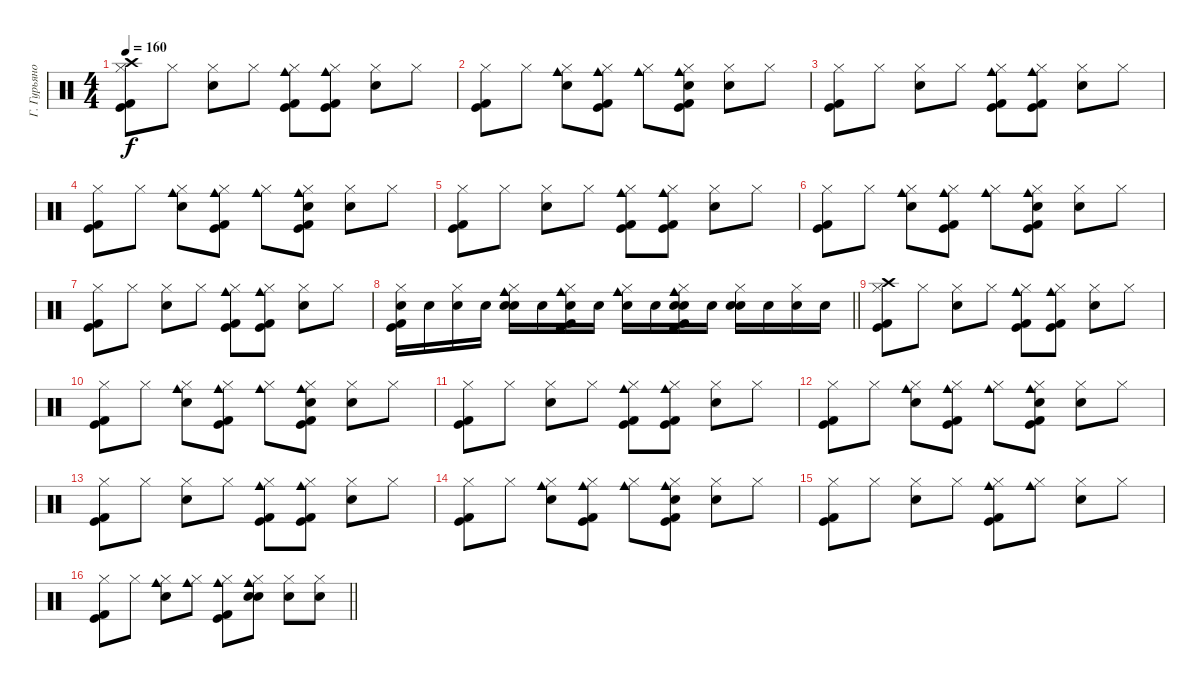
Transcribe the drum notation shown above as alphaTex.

\track ("Г. Гурьянов" "Г. Гурьяно") {instrument percussion}
\staff
\articulation defaults
\ts (4 4)
\tempo 160
\clef neutral
\ks c
("Hi-Hat (closed)" "Crash high (hit)" "Kick (hit)" "Kick (hit) 2").8{dy f} "Hi-Hat (closed)".8 ("Hi-Hat (closed)" "Snare (hit) 2").8 "Hi-Hat (closed)".8 ("Hi-Hat (closed)" "Cowbell medium (hit)" "Kick (hit)" "Kick (hit) 2").8 ("Hi-Hat (closed)" "Cowbell medium (hit)" "Kick (hit)" "Kick (hit) 2").8 ("Hi-Hat (closed)" "Snare (hit) 2").8 "Hi-Hat (closed)".8 |
("Hi-Hat (closed)" "Kick (hit)" "Kick (hit) 2").8 "Hi-Hat (closed)".8 ("Hi-Hat (closed)" "Cowbell medium (hit)" "Snare (hit) 2").8 ("Hi-Hat (closed)" "Cowbell medium (hit)" "Kick (hit)" "Kick (hit) 2").8 ("Hi-Hat (closed)" "Cowbell medium (hit)").8 ("Hi-Hat (closed)" "Cowbell medium (hit)" "Hand Clap (hit)" "Kick (hit)" "Kick (hit) 2").8 ("Hi-Hat (closed)" "Snare (hit) 2").8 "Hi-Hat (closed)".8 |
("Hi-Hat (closed)" "Kick (hit)" "Kick (hit) 2").8 "Hi-Hat (closed)".8 ("Hi-Hat (closed)" "Snare (hit) 2").8 "Hi-Hat (closed)".8 ("Hi-Hat (closed)" "Cowbell medium (hit)" "Kick (hit)" "Kick (hit) 2").8 ("Hi-Hat (closed)" "Cowbell medium (hit)" "Kick (hit)" "Kick (hit) 2").8 ("Hi-Hat (closed)" "Snare (hit) 2").8 "Hi-Hat (closed)".8 |
("Hi-Hat (closed)" "Kick (hit)" "Kick (hit) 2").8 "Hi-Hat (closed)".8 ("Hi-Hat (closed)" "Cowbell medium (hit)" "Snare (hit) 2").8 ("Hi-Hat (closed)" "Cowbell medium (hit)" "Kick (hit)" "Kick (hit) 2").8 ("Hi-Hat (closed)" "Cowbell medium (hit)").8 ("Hi-Hat (closed)" "Cowbell medium (hit)" "Hand Clap (hit)" "Kick (hit)" "Kick (hit) 2").8 ("Hi-Hat (closed)" "Snare (hit) 2").8 "Hi-Hat (closed)".8 |
("Hi-Hat (closed)" "Kick (hit)" "Kick (hit) 2").8 "Hi-Hat (closed)".8 ("Hi-Hat (closed)" "Snare (hit) 2").8 "Hi-Hat (closed)".8 ("Hi-Hat (closed)" "Cowbell medium (hit)" "Kick (hit)" "Kick (hit) 2").8 ("Hi-Hat (closed)" "Cowbell medium (hit)" "Kick (hit)" "Kick (hit) 2").8 ("Hi-Hat (closed)" "Snare (hit) 2").8 "Hi-Hat (closed)".8 |
("Hi-Hat (closed)" "Kick (hit)" "Kick (hit) 2").8 "Hi-Hat (closed)".8 ("Hi-Hat (closed)" "Cowbell medium (hit)" "Snare (hit) 2").8 ("Hi-Hat (closed)" "Cowbell medium (hit)" "Kick (hit)" "Kick (hit) 2").8 ("Hi-Hat (closed)" "Cowbell medium (hit)").8 ("Hi-Hat (closed)" "Cowbell medium (hit)" "Hand Clap (hit)" "Kick (hit)" "Kick (hit) 2").8 ("Hi-Hat (closed)" "Snare (hit) 2").8 "Hi-Hat (closed)".8 |
("Hi-Hat (closed)" "Kick (hit)" "Kick (hit) 2").8 "Hi-Hat (closed)".8 ("Hi-Hat (closed)" "Snare (hit) 2").8 "Hi-Hat (closed)".8 ("Hi-Hat (closed)" "Cowbell medium (hit)" "Kick (hit)" "Kick (hit) 2").8 ("Hi-Hat (closed)" "Cowbell medium (hit)" "Kick (hit)" "Kick (hit) 2").8 ("Hi-Hat (closed)" "Snare (hit) 2").8 "Hi-Hat (closed)".8 |
\barLineRight lightlight
("Hi-Hat (closed)" "Electric Snare (hit)" "Kick (hit)" "Kick (hit) 2").16 "Electric Snare (hit)".16 ("Hi-Hat (closed)" "Electric Snare (hit)").16 "Electric Snare (hit)".16 ("Hi-Hat (closed)" "Electric Snare (hit)" "Snare (hit) 2" "Cowbell medium (hit)").16 "Electric Snare (hit)".16 ("Hi-Hat (closed)" "Electric Snare (hit)" "Cowbell medium (hit)" "Kick (hit)" "Kick (hit) 2").16 "Electric Snare (hit)".16 ("Hi-Hat (closed)" "Electric Snare (hit)" "Cowbell medium (hit)").16 "Electric Snare (hit)".16 ("Hi-Hat (closed)" "Electric Snare (hit)" "Kick (hit)" "Cowbell medium (hit)" "Hand Clap (hit)" "Kick (hit) 2").16 "Electric Snare (hit)".16 ("Hi-Hat (closed)" "Electric Snare (hit)" "Snare (hit) 2").16 "Electric Snare (hit)".16 ("Hi-Hat (closed)" "Electric Snare (hit)").16 "Electric Snare (hit)".16 |
("Hi-Hat (closed)" "Crash high (hit)" "Kick (hit)" "Kick (hit) 2").8 "Hi-Hat (closed)".8 ("Hi-Hat (closed)" "Snare (hit) 2").8 "Hi-Hat (closed)".8 ("Hi-Hat (closed)" "Cowbell medium (hit)" "Kick (hit)" "Kick (hit) 2").8 ("Hi-Hat (closed)" "Cowbell medium (hit)" "Kick (hit)" "Kick (hit) 2").8 ("Hi-Hat (closed)" "Snare (hit) 2").8 "Hi-Hat (closed)".8 |
("Hi-Hat (closed)" "Kick (hit)" "Kick (hit) 2").8 "Hi-Hat (closed)".8 ("Hi-Hat (closed)" "Cowbell medium (hit)" "Snare (hit) 2").8 ("Hi-Hat (closed)" "Cowbell medium (hit)" "Kick (hit)" "Kick (hit) 2").8 ("Hi-Hat (closed)" "Cowbell medium (hit)").8 ("Hi-Hat (closed)" "Cowbell medium (hit)" "Hand Clap (hit)" "Kick (hit)" "Kick (hit) 2").8 ("Hi-Hat (closed)" "Snare (hit) 2").8 "Hi-Hat (closed)".8 |
("Hi-Hat (closed)" "Kick (hit)" "Kick (hit) 2").8 "Hi-Hat (closed)".8 ("Hi-Hat (closed)" "Snare (hit) 2").8 "Hi-Hat (closed)".8 ("Hi-Hat (closed)" "Cowbell medium (hit)" "Kick (hit)" "Kick (hit) 2").8 ("Hi-Hat (closed)" "Cowbell medium (hit)" "Kick (hit)" "Kick (hit) 2").8 ("Hi-Hat (closed)" "Snare (hit) 2").8 "Hi-Hat (closed)".8 |
("Hi-Hat (closed)" "Kick (hit)" "Kick (hit) 2").8 "Hi-Hat (closed)".8 ("Hi-Hat (closed)" "Cowbell medium (hit)" "Snare (hit) 2").8 ("Hi-Hat (closed)" "Cowbell medium (hit)" "Kick (hit)" "Kick (hit) 2").8 ("Hi-Hat (closed)" "Cowbell medium (hit)").8 ("Hi-Hat (closed)" "Cowbell medium (hit)" "Hand Clap (hit)" "Kick (hit)" "Kick (hit) 2").8 ("Hi-Hat (closed)" "Snare (hit) 2").8 "Hi-Hat (closed)".8 |
("Hi-Hat (closed)" "Kick (hit)" "Kick (hit) 2").8 "Hi-Hat (closed)".8 ("Hi-Hat (closed)" "Snare (hit) 2").8 "Hi-Hat (closed)".8 ("Hi-Hat (closed)" "Cowbell medium (hit)" "Kick (hit)" "Kick (hit) 2").8 ("Hi-Hat (closed)" "Cowbell medium (hit)" "Kick (hit)" "Kick (hit) 2").8 ("Hi-Hat (closed)" "Snare (hit) 2").8 "Hi-Hat (closed)".8 |
("Hi-Hat (closed)" "Kick (hit)" "Kick (hit) 2").8 "Hi-Hat (closed)".8 ("Hi-Hat (closed)" "Cowbell medium (hit)" "Snare (hit) 2").8 ("Hi-Hat (closed)" "Cowbell medium (hit)" "Kick (hit)" "Kick (hit) 2").8 ("Hi-Hat (closed)" "Cowbell medium (hit)").8 ("Hi-Hat (closed)" "Cowbell medium (hit)" "Hand Clap (hit)" "Kick (hit)" "Kick (hit) 2").8 ("Hi-Hat (closed)" "Snare (hit) 2").8 "Hi-Hat (closed)".8 |
("Hi-Hat (closed)" "Kick (hit)" "Kick (hit) 2").8 "Hi-Hat (closed)".8 ("Hi-Hat (closed)" "Snare (hit) 2").8 "Hi-Hat (closed)".8 ("Hi-Hat (closed)" "Cowbell medium (hit)" "Kick (hit)" "Kick (hit) 2").8 ("Hi-Hat (closed)" "Cowbell medium (hit)").8 ("Hi-Hat (closed)" "Snare (hit) 2").8 "Hi-Hat (closed)".8 |
\barLineRight lightlight
("Hi-Hat (closed)" "Kick (hit)" "Kick (hit) 2").8 "Hi-Hat (closed)".8 ("Hi-Hat (closed)" "Cowbell medium (hit)" "Snare (hit) 2").8 ("Hi-Hat (closed)" "Cowbell medium (hit)").8 ("Hi-Hat (closed)" "Cowbell medium (hit)" "Kick (hit)" "Kick (hit) 2").8 ("Hi-Hat (closed)" "Cowbell medium (hit)" "Snare (hit) 2" "Hand Clap (hit)").8 ("Hi-Hat (closed)" "Snare (hit) 2").8 ("Hi-Hat (closed)" "Snare (hit) 2").8
